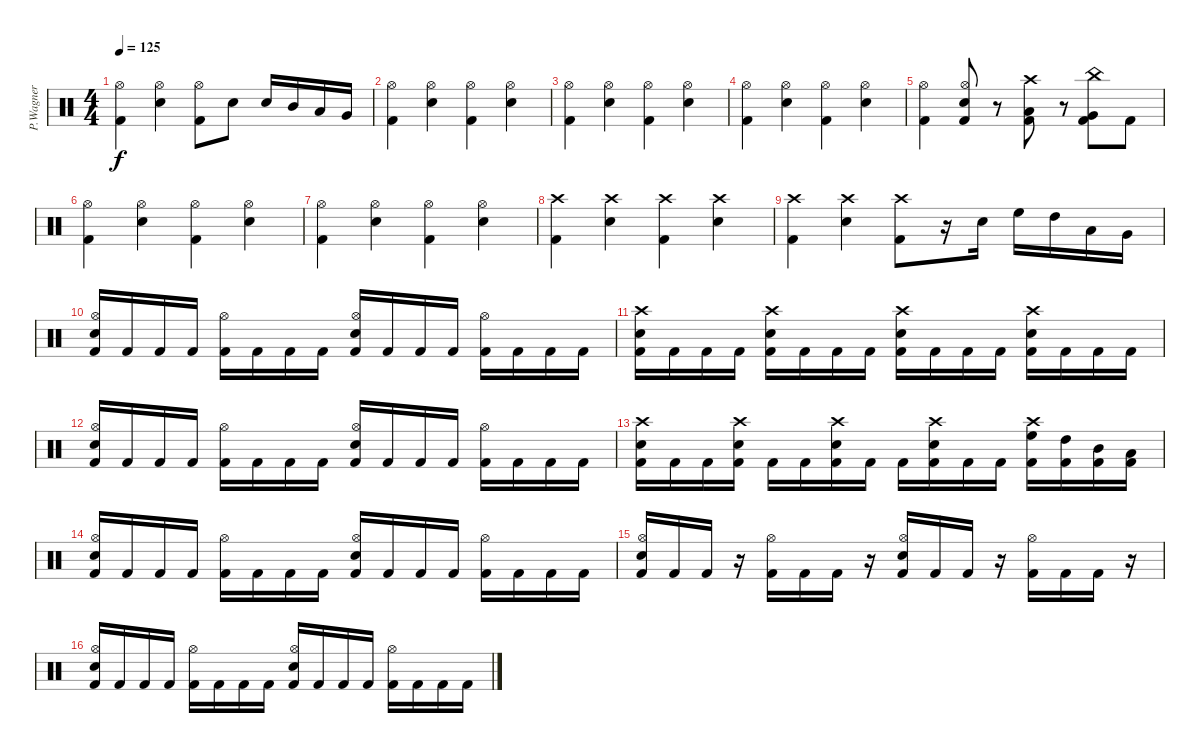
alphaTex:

\track ("P.Wagner" "P.Wagner") {instrument percussion}
\staff {score}
\articulation defaults
\ts (4 4)
\tempo 125
\clef neutral
\ks c
("Kick (hit) 2" "Hi-Hat (open)").4{dy f} ("Electric Snare (hit)" "Hi-Hat (open)").4 ("Kick (hit) 2" "Hi-Hat (open)").8 "Electric Snare (hit)".8 "Electric Snare (hit)".16 "Mid Tom (hit)".16 "Low Tom (hit)".16 "Very Low Tom (hit)".16 |
("Kick (hit) 2" "Hi-Hat (open)").4 ("Electric Snare (hit)" "Hi-Hat (open)").4 ("Kick (hit) 2" "Hi-Hat (open)").4 ("Hi-Hat (open)" "Electric Snare (hit)").4 |
("Kick (hit) 2" "Hi-Hat (open)").4 ("Electric Snare (hit)" "Hi-Hat (open)").4 ("Kick (hit) 2" "Hi-Hat (open)").4 ("Hi-Hat (open)" "Electric Snare (hit)").4 |
("Kick (hit) 2" "Hi-Hat (open)").4 ("Electric Snare (hit)" "Hi-Hat (open)").4 ("Kick (hit) 2" "Hi-Hat (open)").4 ("Hi-Hat (open)" "Electric Snare (hit)").4 |
("Kick (hit) 2" "Hi-Hat (open)").4 ("Kick (hit) 2" "Electric Snare (hit)" "Hi-Hat (open)").8 r.8 ("Kick (hit) 2" "Low Tom (hit)" "Crash high (hit)").8 r.8 ("Kick (hit) 2" "Very Low Tom (hit)" "China (hit)").8 "Kick (hit) 2".8 |
("Kick (hit) 2" "Hi-Hat (open)").4 ("Electric Snare (hit)" "Hi-Hat (open)").4 ("Kick (hit) 2" "Hi-Hat (open)").4 ("Hi-Hat (open)" "Electric Snare (hit)").4 |
("Kick (hit) 2" "Hi-Hat (open)").4 ("Electric Snare (hit)" "Hi-Hat (open)").4 ("Kick (hit) 2" "Hi-Hat (open)").4 ("Hi-Hat (open)" "Electric Snare (hit)").4 |
("Kick (hit) 2" "Crash high (hit)").4 ("Electric Snare (hit)" "Crash high (hit)").4 ("Kick (hit) 2" "Crash high (hit)").4 ("Electric Snare (hit)" "Crash high (hit)").4 |
("Kick (hit) 2" "Crash high (hit)").4 ("Electric Snare (hit)" "Crash high (hit)").4 ("Kick (hit) 2" "Crash high (hit)").8 r.16 "Electric Snare (hit)".16 "High Floor Tom (hit)".16 "High Tom (hit)".16 "Low Tom (hit)".16 "Very Low Tom (hit)".16 |
("Kick (hit) 2" "Electric Snare (hit)" "Hi-Hat (open)").16 "Kick (hit) 2".16 "Kick (hit) 2".16 "Kick (hit) 2".16 ("Kick (hit) 2" "Hi-Hat (open)").16 "Kick (hit) 2".16 "Kick (hit) 2".16 "Kick (hit) 2".16 ("Kick (hit) 2" "Electric Snare (hit)" "Hi-Hat (open)").16 "Kick (hit) 2".16 "Kick (hit) 2".16 "Kick (hit) 2".16 ("Kick (hit) 2" "Hi-Hat (open)").16 "Kick (hit) 2".16 "Kick (hit) 2".16 "Kick (hit) 2".16 |
("Kick (hit) 2" "Electric Snare (hit)" "Crash high (hit)").16 "Kick (hit) 2".16 "Kick (hit) 2".16 "Kick (hit) 2".16 ("Kick (hit) 2" "Electric Snare (hit)" "Crash high (hit)").16 "Kick (hit) 2".16 "Kick (hit) 2".16 "Kick (hit) 2".16 ("Kick (hit) 2" "Electric Snare (hit)" "Crash high (hit)").16 "Kick (hit) 2".16 "Kick (hit) 2".16 "Kick (hit) 2".16 ("Kick (hit) 2" "Electric Snare (hit)" "Crash high (hit)").16 "Kick (hit) 2".16 "Kick (hit) 2".16 "Kick (hit) 2".16 |
("Kick (hit) 2" "Electric Snare (hit)" "Hi-Hat (open)").16 "Kick (hit) 2".16 "Kick (hit) 2".16 "Kick (hit) 2".16 ("Kick (hit) 2" "Hi-Hat (open)").16 "Kick (hit) 2".16 "Kick (hit) 2".16 "Kick (hit) 2".16 ("Kick (hit) 2" "Electric Snare (hit)" "Hi-Hat (open)").16 "Kick (hit) 2".16 "Kick (hit) 2".16 "Kick (hit) 2".16 ("Kick (hit) 2" "Hi-Hat (open)").16 "Kick (hit) 2".16 "Kick (hit) 2".16 "Kick (hit) 2".16 |
("Kick (hit) 2" "Electric Snare (hit)" "Crash high (hit)").16 "Kick (hit) 2".16 "Kick (hit) 2".16 ("Kick (hit) 2" "Electric Snare (hit)" "Crash high (hit)").16 "Kick (hit) 2".16 "Kick (hit) 2".16 ("Kick (hit) 2" "Electric Snare (hit)" "Crash high (hit)").16 "Kick (hit) 2".16 "Kick (hit) 2".16 ("Kick (hit) 2" "Electric Snare (hit)" "Crash high (hit)").16 "Kick (hit) 2".16 "Kick (hit) 2".16 ("Kick (hit) 2" "High Floor Tom (hit)" "Crash high (hit)").16 ("Kick (hit) 2" "High Tom (hit)").16 ("Kick (hit) 2" "Mid Tom (hit)").16 ("Kick (hit) 2" "Low Tom (hit)").16 |
("Kick (hit) 2" "Electric Snare (hit)" "Hi-Hat (open)").16 "Kick (hit) 2".16 "Kick (hit) 2".16 "Kick (hit) 2".16 ("Kick (hit) 2" "Hi-Hat (open)").16 "Kick (hit) 2".16 "Kick (hit) 2".16 "Kick (hit) 2".16 ("Kick (hit) 2" "Electric Snare (hit)" "Hi-Hat (open)").16 "Kick (hit) 2".16 "Kick (hit) 2".16 "Kick (hit) 2".16 ("Kick (hit) 2" "Hi-Hat (open)").16 "Kick (hit) 2".16 "Kick (hit) 2".16 "Kick (hit) 2".16 |
("Kick (hit) 2" "Electric Snare (hit)" "Hi-Hat (open)").16 "Kick (hit) 2".16 "Kick (hit) 2".16 r.16 ("Kick (hit) 2" "Hi-Hat (open)").16 "Kick (hit) 2".16 "Kick (hit) 2".16 r.16 ("Kick (hit) 2" "Electric Snare (hit)" "Hi-Hat (open)").16 "Kick (hit) 2".16 "Kick (hit) 2".16 r.16 ("Kick (hit) 2" "Hi-Hat (open)").16 "Kick (hit) 2".16 "Kick (hit) 2".16 r.16 |
("Kick (hit) 2" "Electric Snare (hit)" "Hi-Hat (open)").16 "Kick (hit) 2".16 "Kick (hit) 2".16 "Kick (hit) 2".16 ("Kick (hit) 2" "Hi-Hat (open)").16 "Kick (hit) 2".16 "Kick (hit) 2".16 "Kick (hit) 2".16 ("Kick (hit) 2" "Electric Snare (hit)" "Hi-Hat (open)").16 "Kick (hit) 2".16 "Kick (hit) 2".16 "Kick (hit) 2".16 ("Kick (hit) 2" "Hi-Hat (open)").16 "Kick (hit) 2".16 "Kick (hit) 2".16 "Kick (hit) 2".16
